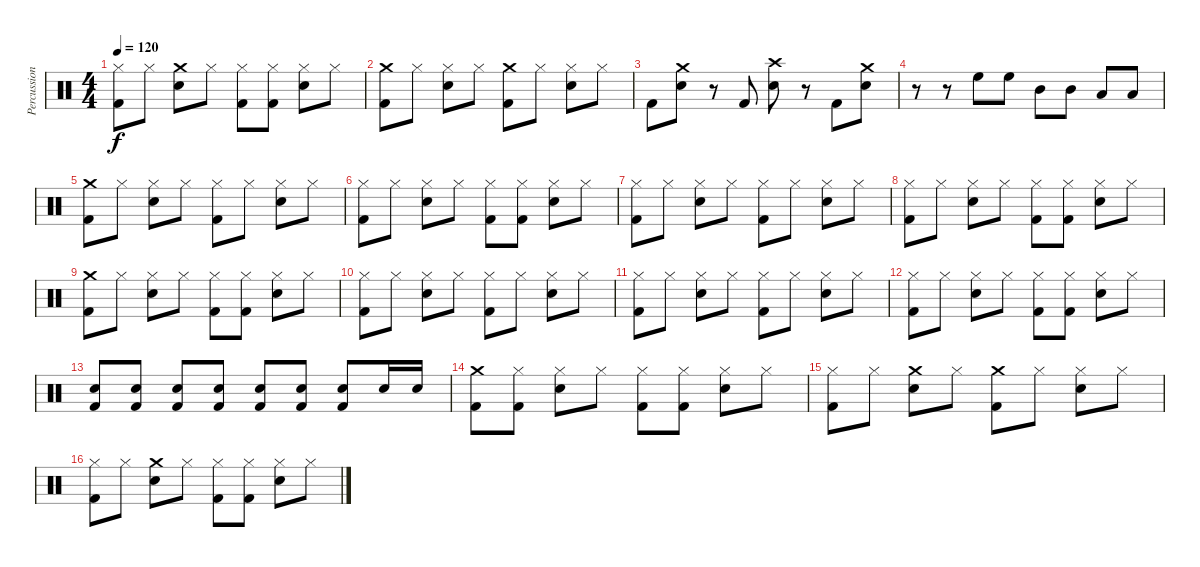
\track ("Percussions" "Percussion") {instrument percussion}
\staff {score}
\articulation defaults
\ts (4 4)
\tempo 120
\clef neutral
\ks c
("Hi-Hat (closed)" "Kick (hit) 2").8{dy f} "Hi-Hat (closed)".8 ("Crash medium (hit)" "Electric Snare (hit)").8 "Hi-Hat (closed)".8 ("Hi-Hat (closed)" "Kick (hit) 2").8 ("Hi-Hat (closed)" "Kick (hit) 2").8 ("Hi-Hat (closed)" "Electric Snare (hit)").8 "Hi-Hat (closed)".8 |
("Crash medium (hit)" "Kick (hit) 2").8 "Hi-Hat (closed)".8 ("Hi-Hat (closed)" "Electric Snare (hit)").8 "Hi-Hat (closed)".8 ("Crash medium (hit)" "Kick (hit) 2").8 "Hi-Hat (closed)".8 ("Hi-Hat (closed)" "Electric Snare (hit)").8 "Hi-Hat (closed)".8 |
"Kick (hit) 2".8 ("Crash medium (hit)" "Electric Snare (hit)").8 r.8 "Kick (hit) 2".8 ("Crash high (hit)" "Electric Snare (hit)").8 r.8 "Kick (hit) 2".8 ("Crash medium (hit)" "Electric Snare (hit)").8 |
r.8 r.8 "High Floor Tom (hit)".8 "High Floor Tom (hit)".8 "Mid Tom (hit)".8 "Mid Tom (hit)".8 "Low Tom (hit)".8 "Low Tom (hit)".8 |
("Crash medium (hit)" "Kick (hit) 2").8 "Hi-Hat (closed)".8 ("Hi-Hat (closed)" "Electric Snare (hit)").8 "Hi-Hat (closed)".8 ("Hi-Hat (closed)" "Kick (hit) 2").8 "Hi-Hat (closed)".8 ("Hi-Hat (closed)" "Electric Snare (hit)").8 "Hi-Hat (closed)".8 |
("Hi-Hat (closed)" "Kick (hit) 2").8 "Hi-Hat (closed)".8 ("Hi-Hat (closed)" "Electric Snare (hit)").8 "Hi-Hat (closed)".8 ("Hi-Hat (closed)" "Kick (hit) 2").8 ("Hi-Hat (closed)" "Kick (hit) 2").8 ("Hi-Hat (closed)" "Electric Snare (hit)").8 "Hi-Hat (closed)".8 |
("Hi-Hat (closed)" "Kick (hit) 2").8 "Hi-Hat (closed)".8 ("Hi-Hat (closed)" "Electric Snare (hit)").8 "Hi-Hat (closed)".8 ("Hi-Hat (closed)" "Kick (hit) 2").8 "Hi-Hat (closed)".8 ("Hi-Hat (closed)" "Electric Snare (hit)").8 "Hi-Hat (closed)".8 |
("Hi-Hat (closed)" "Kick (hit) 2").8 "Hi-Hat (closed)".8 ("Hi-Hat (closed)" "Electric Snare (hit)").8 "Hi-Hat (closed)".8 ("Hi-Hat (closed)" "Kick (hit) 2").8 ("Hi-Hat (closed)" "Kick (hit) 2").8 ("Hi-Hat (closed)" "Electric Snare (hit)").8 "Hi-Hat (closed)".8 |
("Crash medium (hit)" "Kick (hit) 2").8 "Hi-Hat (closed)".8 ("Hi-Hat (closed)" "Electric Snare (hit)").8 "Hi-Hat (closed)".8 ("Hi-Hat (closed)" "Kick (hit) 2").8 ("Hi-Hat (closed)" "Kick (hit) 2").8 ("Hi-Hat (closed)" "Electric Snare (hit)").8 "Hi-Hat (closed)".8 |
("Hi-Hat (closed)" "Kick (hit) 2").8 "Hi-Hat (closed)".8 ("Hi-Hat (closed)" "Electric Snare (hit)").8 "Hi-Hat (closed)".8 ("Hi-Hat (closed)" "Kick (hit) 2").8 "Hi-Hat (closed)".8 ("Hi-Hat (closed)" "Electric Snare (hit)").8 "Hi-Hat (closed)".8 |
("Hi-Hat (closed)" "Kick (hit) 2").8 "Hi-Hat (closed)".8 ("Hi-Hat (closed)" "Electric Snare (hit)").8 "Hi-Hat (closed)".8 ("Hi-Hat (closed)" "Kick (hit) 2").8 "Hi-Hat (closed)".8 ("Hi-Hat (closed)" "Electric Snare (hit)").8 "Hi-Hat (closed)".8 |
("Hi-Hat (closed)" "Kick (hit) 2").8 "Hi-Hat (closed)".8 ("Hi-Hat (closed)" "Electric Snare (hit)").8 "Hi-Hat (closed)".8 ("Hi-Hat (closed)" "Kick (hit) 2").8 ("Hi-Hat (closed)" "Kick (hit) 2").8 ("Hi-Hat (closed)" "Electric Snare (hit)").8 "Hi-Hat (closed)".8 |
("Electric Snare (hit)" "Kick (hit) 2").8 ("Electric Snare (hit)" "Kick (hit) 2").8 ("Electric Snare (hit)" "Kick (hit) 2").8 ("Electric Snare (hit)" "Kick (hit) 2").8 ("Electric Snare (hit)" "Kick (hit) 2").8 ("Electric Snare (hit)" "Kick (hit) 2").8 ("Electric Snare (hit)" "Kick (hit) 2").8 "Electric Snare (hit)".16 "Electric Snare (hit)".16 |
("Crash medium (hit)" "Kick (hit) 2").8 ("Hi-Hat (closed)" "Kick (hit) 2").8 ("Hi-Hat (closed)" "Electric Snare (hit)").8 "Hi-Hat (closed)".8 ("Hi-Hat (closed)" "Kick (hit) 2").8 ("Hi-Hat (closed)" "Kick (hit) 2").8 ("Hi-Hat (closed)" "Electric Snare (hit)").8 "Hi-Hat (closed)".8 |
("Hi-Hat (closed)" "Kick (hit) 2").8 "Hi-Hat (closed)".8 ("Crash medium (hit)" "Electric Snare (hit)").8 "Hi-Hat (closed)".8 ("Crash medium (hit)" "Kick (hit) 2").8 "Hi-Hat (closed)".8 ("Hi-Hat (closed)" "Electric Snare (hit)").8 "Hi-Hat (closed)".8 |
("Hi-Hat (closed)" "Kick (hit) 2").8 "Hi-Hat (closed)".8 ("Crash medium (hit)" "Electric Snare (hit)").8 "Hi-Hat (closed)".8 ("Hi-Hat (closed)" "Kick (hit) 2").8 ("Hi-Hat (closed)" "Kick (hit) 2").8 ("Hi-Hat (closed)" "Electric Snare (hit)").8 "Hi-Hat (closed)".8
